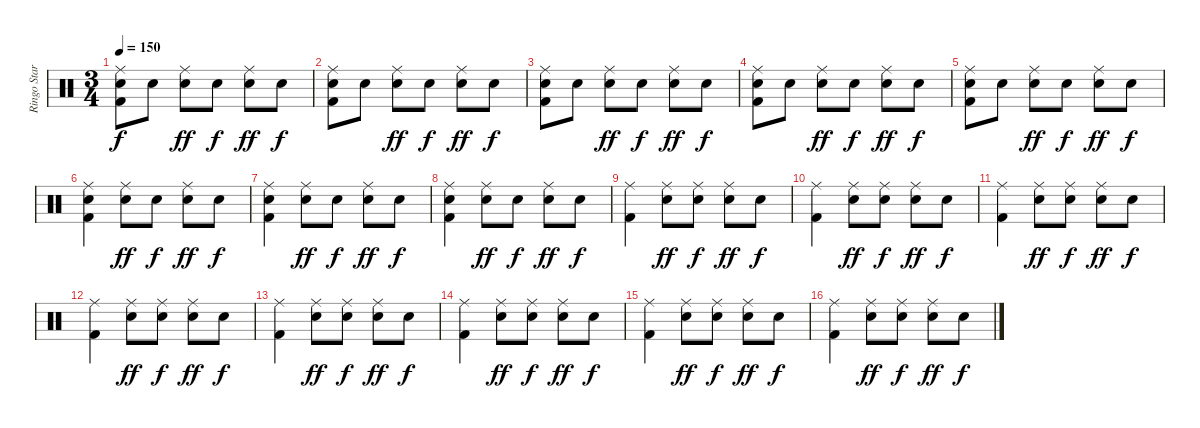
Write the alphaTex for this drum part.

\track ("Ringo Starr (Batterie)" "Ringo Star") {instrument percussion}
\staff {score}
\articulation defaults
\ts (3 4)
\tempo 150
\clef neutral
\ks c
("Ride (middle)" "Snare (hit) 2" "Kick (hit) 2").8{dy f} "Snare (hit) 2".8 ("Ride (middle)" "Snare (hit) 2").8{dy ff} "Snare (hit) 2".8{dy f} ("Ride (middle)" "Snare (hit) 2").8{dy ff} "Snare (hit) 2".8{dy f} |
("Ride (middle)" "Snare (hit) 2" "Kick (hit) 2").8 "Snare (hit) 2".8 ("Ride (middle)" "Snare (hit) 2").8{dy ff} "Snare (hit) 2".8{dy f} ("Ride (middle)" "Snare (hit) 2").8{dy ff} "Snare (hit) 2".8{dy f} |
("Ride (middle)" "Snare (hit) 2" "Kick (hit) 2").8 "Snare (hit) 2".8 ("Ride (middle)" "Snare (hit) 2").8{dy ff} "Snare (hit) 2".8{dy f} ("Ride (middle)" "Snare (hit) 2").8{dy ff} "Snare (hit) 2".8{dy f} |
("Ride (middle)" "Snare (hit) 2" "Kick (hit) 2").8 "Snare (hit) 2".8 ("Ride (middle)" "Snare (hit) 2").8{dy ff} "Snare (hit) 2".8{dy f} ("Ride (middle)" "Snare (hit) 2").8{dy ff} "Snare (hit) 2".8{dy f} |
("Ride (middle)" "Snare (hit) 2" "Kick (hit) 2").8 "Snare (hit) 2".8 ("Ride (middle)" "Snare (hit) 2").8{dy ff} "Snare (hit) 2".8{dy f} ("Ride (middle)" "Snare (hit) 2").8{dy ff} "Snare (hit) 2".8{dy f} |
("Ride (middle)" "Snare (hit) 2" "Kick (hit) 2").4 ("Ride (middle)" "Snare (hit) 2").8{dy ff} "Snare (hit) 2".8{dy f} ("Ride (middle)" "Snare (hit) 2").8{dy ff} "Snare (hit) 2".8{dy f} |
("Ride (middle)" "Snare (hit) 2" "Kick (hit) 2").4 ("Ride (middle)" "Snare (hit) 2").8{dy ff} "Snare (hit) 2".8{dy f} ("Ride (middle)" "Snare (hit) 2").8{dy ff} "Snare (hit) 2".8{dy f} |
("Ride (middle)" "Snare (hit) 2" "Kick (hit) 2").4 ("Ride (middle)" "Snare (hit) 2").8{dy ff} "Snare (hit) 2".8{dy f} ("Ride (middle)" "Snare (hit) 2").8{dy ff} "Snare (hit) 2".8{dy f} |
("Ride (middle)" "Kick (hit) 2").4 ("Ride (middle)" "Snare (hit) 2").8{dy ff} ("Ride (middle)" "Snare (hit) 2").8{dy f} ("Ride (middle)" "Snare (hit) 2").8{dy ff} "Snare (hit) 2".8{dy f} |
("Ride (middle)" "Kick (hit) 2").4 ("Ride (middle)" "Snare (hit) 2").8{dy ff} ("Ride (middle)" "Snare (hit) 2").8{dy f} ("Ride (middle)" "Snare (hit) 2").8{dy ff} "Snare (hit) 2".8{dy f} |
("Ride (middle)" "Kick (hit) 2").4 ("Ride (middle)" "Snare (hit) 2").8{dy ff} ("Ride (middle)" "Snare (hit) 2").8{dy f} ("Ride (middle)" "Snare (hit) 2").8{dy ff} "Snare (hit) 2".8{dy f} |
("Ride (middle)" "Kick (hit) 2").4 ("Ride (middle)" "Snare (hit) 2").8{dy ff} ("Ride (middle)" "Snare (hit) 2").8{dy f} ("Ride (middle)" "Snare (hit) 2").8{dy ff} "Snare (hit) 2".8{dy f} |
("Ride (middle)" "Kick (hit) 2").4 ("Ride (middle)" "Snare (hit) 2").8{dy ff} ("Ride (middle)" "Snare (hit) 2").8{dy f} ("Ride (middle)" "Snare (hit) 2").8{dy ff} "Snare (hit) 2".8{dy f} |
("Ride (middle)" "Kick (hit) 2").4 ("Ride (middle)" "Snare (hit) 2").8{dy ff} ("Ride (middle)" "Snare (hit) 2").8{dy f} ("Ride (middle)" "Snare (hit) 2").8{dy ff} "Snare (hit) 2".8{dy f} |
("Ride (middle)" "Kick (hit) 2").4 ("Ride (middle)" "Snare (hit) 2").8{dy ff} ("Ride (middle)" "Snare (hit) 2").8{dy f} ("Ride (middle)" "Snare (hit) 2").8{dy ff} "Snare (hit) 2".8{dy f} |
("Ride (middle)" "Kick (hit) 2").4 ("Ride (middle)" "Snare (hit) 2").8{dy ff} ("Ride (middle)" "Snare (hit) 2").8{dy f} ("Ride (middle)" "Snare (hit) 2").8{dy ff} "Snare (hit) 2".8{dy f}
